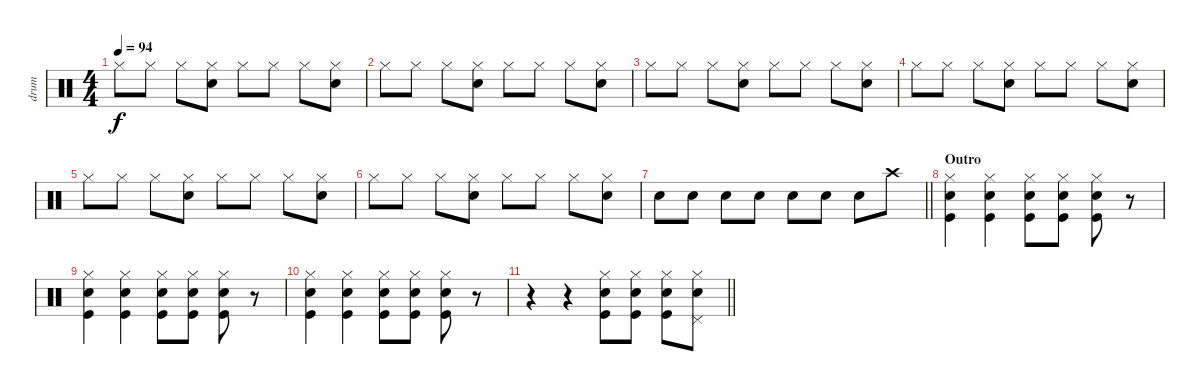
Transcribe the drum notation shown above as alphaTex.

\track ("drum" "drum") {instrument percussion}
\staff {score}
\articulation defaults
\ts (4 4)
\tempo 94
\clef neutral
\ks c "Hi-Hat (closed)".8{dy f} "Hi-Hat (closed)".8 "Hi-Hat (closed)".8
("Hi-Hat (closed)" "Snare (hit) 2").8 "Hi-Hat (closed)".8 "Hi-Hat (closed)".8 "Hi-Hat (closed)".8 ("Hi-Hat (closed)" "Snare (hit) 2").8 |
"Hi-Hat (closed)".8 "Hi-Hat (closed)".8 "Hi-Hat (closed)".8 ("Hi-Hat (closed)" "Snare (hit) 2").8 "Hi-Hat (closed)".8 "Hi-Hat (closed)".8 "Hi-Hat (closed)".8 ("Hi-Hat (closed)" "Snare (hit) 2").8 |
"Hi-Hat (closed)".8 "Hi-Hat (closed)".8 "Hi-Hat (closed)".8 ("Hi-Hat (closed)" "Snare (hit) 2").8 "Hi-Hat (closed)".8 "Hi-Hat (closed)".8 "Hi-Hat (closed)".8 ("Hi-Hat (closed)" "Snare (hit) 2").8 |
"Hi-Hat (closed)".8 "Hi-Hat (closed)".8 "Hi-Hat (closed)".8 ("Hi-Hat (closed)" "Snare (hit) 2").8 "Hi-Hat (closed)".8 "Hi-Hat (closed)".8 "Hi-Hat (closed)".8 ("Hi-Hat (closed)" "Snare (hit) 2").8 |
"Hi-Hat (closed)".8 "Hi-Hat (closed)".8 "Hi-Hat (closed)".8 ("Hi-Hat (closed)" "Snare (hit) 2").8 "Hi-Hat (closed)".8 "Hi-Hat (closed)".8 "Hi-Hat (closed)".8 ("Hi-Hat (closed)" "Snare (hit) 2").8 |
"Hi-Hat (closed)".8 "Hi-Hat (closed)".8 "Hi-Hat (closed)".8 ("Hi-Hat (closed)" "Snare (hit) 2").8 "Hi-Hat (closed)".8 "Hi-Hat (closed)".8 "Hi-Hat (closed)".8 ("Hi-Hat (closed)" "Snare (hit) 2").8 |
\barLineRight lightlight "Snare (hit) 2".8 "Snare (hit) 2".8 "Snare (hit) 2".8 "Snare (hit) 2".8 "Snare (hit) 2".8 "Snare (hit) 2".8 "Snare (hit) 2".8 "Crash high (hit)".8
|
\section ("" "Outro")
("Hi-Hat (closed)" "Snare (hit) 2" "Kick (hit)").4 ("Hi-Hat (closed)" "Kick (hit)" "Snare (hit) 2").4 ("Hi-Hat (closed)" "Kick (hit)" "Snare (hit) 2").8 ("Hi-Hat (closed)" "Kick (hit)" "Snare (hit) 2").8 ("Hi-Hat (closed)" "Kick (hit)" "Snare (hit) 2").8 r.8 |
("Hi-Hat (closed)" "Snare (hit) 2" "Kick (hit)").4 ("Hi-Hat (closed)" "Kick (hit)" "Snare (hit) 2").4 ("Hi-Hat (closed)" "Kick (hit)" "Snare (hit) 2").8 ("Hi-Hat (closed)" "Kick (hit)" "Snare (hit) 2").8 ("Hi-Hat (closed)" "Kick (hit)" "Snare (hit) 2").8 r.8 |
("Hi-Hat (closed)" "Snare (hit) 2" "Kick (hit)").4 ("Hi-Hat (closed)" "Kick (hit)" "Snare (hit) 2").4 ("Hi-Hat (closed)" "Kick (hit)" "Snare (hit) 2").8 ("Hi-Hat (closed)" "Kick (hit)" "Snare (hit) 2").8 ("Hi-Hat (closed)" "Kick (hit)" "Snare (hit) 2").8 r.8 |
\barLineRight lightlight
r.4 r.4 ("Kick (hit)" "Snare (hit) 2" "Hi-Hat (closed)").8 ("Snare (hit) 2" "Kick (hit)" "Hi-Hat (closed)").8 ("Snare (hit) 2" "Kick (hit)" "Hi-Hat (closed)").8 ("Pedal Hi-Hat (hit)" "Hi-Hat (closed)" "Snare (hit) 2").8
